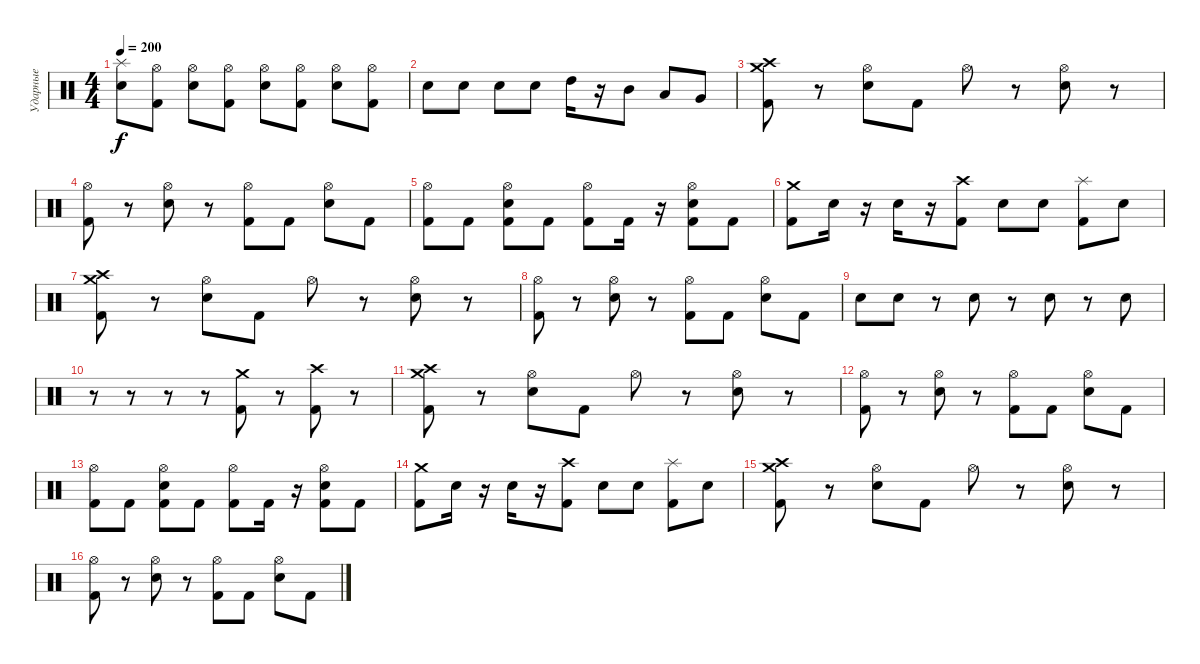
\track ("Ударные" "Ударные") {instrument percussion}
\staff {score}
\articulation defaults
\ts (4 4)
\tempo 200
\clef neutral
\ks c
("Electric Snare (hit)" "Splash (hit)").8{dy f} ("Kick (hit) 2" "Hi-Hat (open)").8 ("Electric Snare (hit)" "Hi-Hat (open)").8 ("Kick (hit) 2" "Hi-Hat (open)").8 ("Electric Snare (hit)" "Hi-Hat (open)").8 ("Kick (hit) 2" "Hi-Hat (open)").8 ("Electric Snare (hit)" "Hi-Hat (open)").8 ("Kick (hit) 2" "Hi-Hat (open)").8 |
"Electric Snare (hit)".8 "Electric Snare (hit)".8 "Electric Snare (hit)".8 "Electric Snare (hit)".8 "High Tom (hit)".16 r.16 "Mid Tom (hit)".8 "Low Tom (hit)".8 "Very Low Tom (hit)".8 |
("Kick (hit) 2" "Crash high (hit)" "Crash medium (hit)").8 r.8 ("Electric Snare (hit)" "Hi-Hat (open)").8 "Kick (hit) 2".8 "Hi-Hat (open)".8 r.8 ("Electric Snare (hit)" "Hi-Hat (open)").8 r.8 |
("Kick (hit) 2" "Hi-Hat (open)").8 r.8 ("Electric Snare (hit)" "Hi-Hat (open)").8 r.8 ("Kick (hit) 2" "Hi-Hat (open)").8 "Kick (hit) 2".8 ("Electric Snare (hit)" "Hi-Hat (open)").8 "Kick (hit) 2".8 |
("Kick (hit) 2" "Hi-Hat (open)").8 "Kick (hit) 2".8 ("Kick (hit) 2" "Electric Snare (hit)" "Hi-Hat (open)").8 "Kick (hit) 2".8 ("Kick (hit) 2" "Hi-Hat (open)").8 "Kick (hit) 2".16 r.16 ("Kick (hit) 2" "Electric Snare (hit)" "Hi-Hat (open)").8 "Kick (hit) 2".8 |
("Kick (hit) 2" "Crash medium (hit)").8 "Electric Snare (hit)".16 r.16 "Electric Snare (hit)".16 r.16 ("Kick (hit) 2" "Crash high (hit)").8 "Electric Snare (hit)".8 "Electric Snare (hit)".8 ("Kick (hit) 2" "Splash (hit)").8 "Electric Snare (hit)".8 |
("Kick (hit) 2" "Crash high (hit)" "Crash medium (hit)").8 r.8 ("Electric Snare (hit)" "Hi-Hat (open)").8 "Kick (hit) 2".8 "Hi-Hat (open)".8 r.8 ("Electric Snare (hit)" "Hi-Hat (open)").8 r.8 |
("Kick (hit) 2" "Hi-Hat (open)").8 r.8 ("Electric Snare (hit)" "Hi-Hat (open)").8 r.8 ("Kick (hit) 2" "Hi-Hat (open)").8 "Kick (hit) 2".8 ("Electric Snare (hit)" "Hi-Hat (open)").8 "Kick (hit) 2".8 |
"Electric Snare (hit)".8 "Electric Snare (hit)".8 r.8 "Electric Snare (hit)".8 r.8 "Electric Snare (hit)".8 r.8 "Electric Snare (hit)".8 |
r.8 r.8 r.8 r.8 ("Kick (hit) 2" "Crash medium (hit)").8 r.8 ("Kick (hit) 2" "Crash high (hit)").8 r.8 |
("Kick (hit) 2" "Crash high (hit)" "Crash medium (hit)").8 r.8 ("Electric Snare (hit)" "Hi-Hat (open)").8 "Kick (hit) 2".8 "Hi-Hat (open)".8 r.8 ("Electric Snare (hit)" "Hi-Hat (open)").8 r.8 |
("Kick (hit) 2" "Hi-Hat (open)").8 r.8 ("Electric Snare (hit)" "Hi-Hat (open)").8 r.8 ("Kick (hit) 2" "Hi-Hat (open)").8 "Kick (hit) 2".8 ("Electric Snare (hit)" "Hi-Hat (open)").8 "Kick (hit) 2".8 |
("Kick (hit) 2" "Hi-Hat (open)").8 "Kick (hit) 2".8 ("Kick (hit) 2" "Electric Snare (hit)" "Hi-Hat (open)").8 "Kick (hit) 2".8 ("Kick (hit) 2" "Hi-Hat (open)").8 "Kick (hit) 2".16 r.16 ("Kick (hit) 2" "Electric Snare (hit)" "Hi-Hat (open)").8 "Kick (hit) 2".8 |
("Kick (hit) 2" "Crash medium (hit)").8 "Electric Snare (hit)".16 r.16 "Electric Snare (hit)".16 r.16 ("Kick (hit) 2" "Crash high (hit)").8 "Electric Snare (hit)".8 "Electric Snare (hit)".8 ("Kick (hit) 2" "Splash (hit)").8 "Electric Snare (hit)".8 |
("Kick (hit) 2" "Crash high (hit)" "Crash medium (hit)").8 r.8 ("Electric Snare (hit)" "Hi-Hat (open)").8 "Kick (hit) 2".8 "Hi-Hat (open)".8 r.8 ("Electric Snare (hit)" "Hi-Hat (open)").8 r.8 |
("Kick (hit) 2" "Hi-Hat (open)").8 r.8 ("Electric Snare (hit)" "Hi-Hat (open)").8 r.8 ("Kick (hit) 2" "Hi-Hat (open)").8 "Kick (hit) 2".8 ("Electric Snare (hit)" "Hi-Hat (open)").8 "Kick (hit) 2".8
